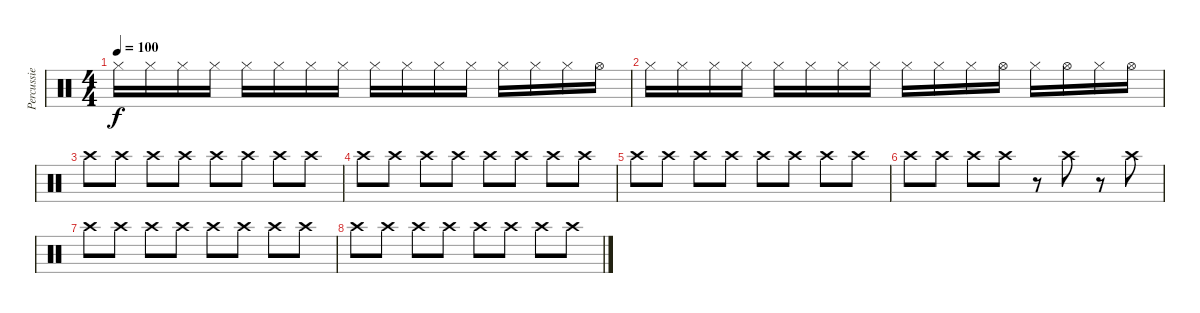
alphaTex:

\track ("Percussie" "Percussie") {instrument percussion}
\staff {score}
\articulation defaults
\ts (4 4)
\tempo 100
\clef neutral
\ks c "Hi-Hat (closed)".16{dy f} "Hi-Hat (closed)".16 "Hi-Hat (closed)".16 "Hi-Hat (closed)".16 "Hi-Hat (closed)".16 "Hi-Hat (closed)".16 "Hi-Hat (closed)".16 "Hi-Hat (closed)".16 "Hi-Hat (closed)".16 "Hi-Hat (closed)".16 "Hi-Hat (closed)".16 "Hi-Hat (closed)".16 "Hi-Hat (closed)".16 "Hi-Hat (closed)".16 "Hi-Hat (closed)".16 "Hi-Hat (open)".16
|
"Hi-Hat (closed)".16 "Hi-Hat (closed)".16 "Hi-Hat (closed)".16 "Hi-Hat (closed)".16 "Hi-Hat (closed)".16 "Hi-Hat (closed)".16 "Hi-Hat (closed)".16 "Hi-Hat (closed)".16 "Hi-Hat (closed)".16 "Hi-Hat (closed)".16 "Hi-Hat (closed)".16 "Hi-Hat (open)".16 "Hi-Hat (closed)".16 "Hi-Hat (open)".16 "Hi-Hat (closed)".16 "Hi-Hat (open)".16 |
"Crash high (hit)".8 "Crash high (hit)".8 "Crash high (hit)".8 "Crash high (hit)".8 "Crash high (hit)".8 "Crash high (hit)".8 "Crash high (hit)".8 "Crash high (hit)".8 |
"Crash high (hit)".8 "Crash high (hit)".8 "Crash high (hit)".8 "Crash high (hit)".8 "Crash high (hit)".8 "Crash high (hit)".8 "Crash high (hit)".8 "Crash high (hit)".8 |
"Crash high (hit)".8 "Crash high (hit)".8 "Crash high (hit)".8 "Crash high (hit)".8 "Crash high (hit)".8 "Crash high (hit)".8 "Crash high (hit)".8 "Crash high (hit)".8 |
"Crash high (hit)".8 "Crash high (hit)".8 "Crash high (hit)".8 "Crash high (hit)".8 r.8 "Crash high (hit)".8 r.8 "Crash high (hit)".8 |
"Crash high (hit)".8 "Crash high (hit)".8 "Crash high (hit)".8 "Crash high (hit)".8 "Crash high (hit)".8 "Crash high (hit)".8 "Crash high (hit)".8 "Crash high (hit)".8 |
"Crash high (hit)".8 "Crash high (hit)".8 "Crash high (hit)".8 "Crash high (hit)".8 "Crash high (hit)".8 "Crash high (hit)".8 "Crash high (hit)".8 "Crash high (hit)".8
